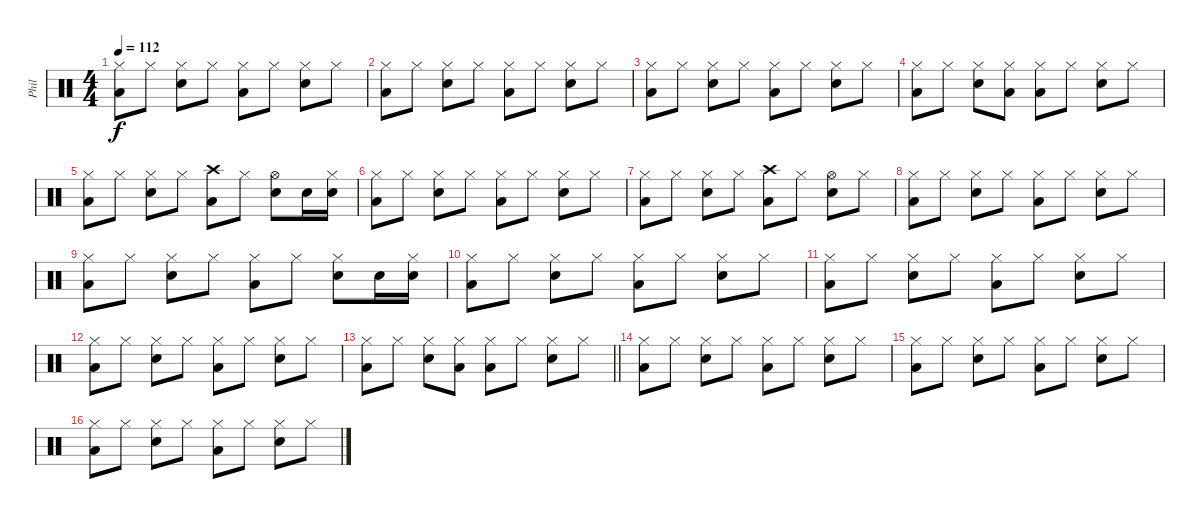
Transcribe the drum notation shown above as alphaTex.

\track ("Phil" "Phil") {instrument percussion}
\staff {score}
\articulation defaults
\ts (4 4)
\tempo 112
\clef neutral
\ks c
("Hi-Hat (closed)" "Low Floor Tom (hit)").8{dy f} "Hi-Hat (closed)".8 ("Hi-Hat (closed)" "Snare (hit) 2").8 "Hi-Hat (closed)".8 ("Hi-Hat (closed)" "Low Floor Tom (hit)").8 "Hi-Hat (closed)".8 ("Hi-Hat (closed)" "Snare (hit) 2").8 "Hi-Hat (closed)".8 |
("Hi-Hat (closed)" "Low Floor Tom (hit)").8 "Hi-Hat (closed)".8 ("Hi-Hat (closed)" "Snare (hit) 2").8 "Hi-Hat (closed)".8 ("Hi-Hat (closed)" "Low Floor Tom (hit)").8 "Hi-Hat (closed)".8 ("Hi-Hat (closed)" "Snare (hit) 2").8 "Hi-Hat (closed)".8 |
("Hi-Hat (closed)" "Low Floor Tom (hit)").8 "Hi-Hat (closed)".8 ("Hi-Hat (closed)" "Snare (hit) 2").8 "Hi-Hat (closed)".8 ("Hi-Hat (closed)" "Low Floor Tom (hit)").8 "Hi-Hat (closed)".8 ("Hi-Hat (closed)" "Snare (hit) 2").8 "Hi-Hat (closed)".8 |
("Hi-Hat (closed)" "Low Floor Tom (hit)").8 "Hi-Hat (closed)".8 ("Hi-Hat (closed)" "Snare (hit) 2").8 ("Hi-Hat (closed)" "Low Floor Tom (hit)").8 ("Hi-Hat (closed)" "Low Floor Tom (hit)").8 "Hi-Hat (closed)".8 ("Hi-Hat (closed)" "Snare (hit) 2").8 "Hi-Hat (closed)".8 |
("Hi-Hat (closed)" "Low Floor Tom (hit)").8 "Hi-Hat (closed)".8 ("Hi-Hat (closed)" "Snare (hit) 2").8 "Hi-Hat (closed)".8 ("Crash high (hit)" "Low Floor Tom (hit)").8 "Hi-Hat (closed)".8 ("Hi-Hat (open)" "Snare (hit) 2").8 "Snare (hit) 2".16 ("Hi-Hat (closed)" "Snare (hit) 2").16 |
("Hi-Hat (closed)" "Low Floor Tom (hit)").8 "Hi-Hat (closed)".8 ("Hi-Hat (closed)" "Snare (hit) 2").8 "Hi-Hat (closed)".8 ("Hi-Hat (closed)" "Low Floor Tom (hit)").8 "Hi-Hat (closed)".8 ("Hi-Hat (closed)" "Snare (hit) 2").8 "Hi-Hat (closed)".8 |
("Hi-Hat (closed)" "Low Floor Tom (hit)").8 "Hi-Hat (closed)".8 ("Hi-Hat (closed)" "Snare (hit) 2").8 "Hi-Hat (closed)".8 ("Crash high (hit)" "Low Floor Tom (hit)").8 "Hi-Hat (closed)".8 ("Hi-Hat (open)" "Snare (hit) 2").8 "Hi-Hat (closed)".8 |
("Hi-Hat (closed)" "Low Floor Tom (hit)").8 "Hi-Hat (closed)".8 ("Hi-Hat (closed)" "Snare (hit) 2").8 "Hi-Hat (closed)".8 ("Hi-Hat (closed)" "Low Floor Tom (hit)").8 "Hi-Hat (closed)".8 ("Hi-Hat (closed)" "Snare (hit) 2").8 "Hi-Hat (closed)".8 |
("Hi-Hat (closed)" "Low Floor Tom (hit)").8 "Hi-Hat (closed)".8 ("Hi-Hat (closed)" "Snare (hit) 2").8 "Hi-Hat (closed)".8 ("Hi-Hat (closed)" "Low Floor Tom (hit)").8 "Hi-Hat (closed)".8 ("Hi-Hat (closed)" "Snare (hit) 2").8 "Snare (hit) 2".16 ("Hi-Hat (closed)" "Snare (hit) 2").16 |
("Hi-Hat (closed)" "Low Floor Tom (hit)").8 "Hi-Hat (closed)".8 ("Hi-Hat (closed)" "Snare (hit) 2").8 "Hi-Hat (closed)".8 ("Hi-Hat (closed)" "Low Floor Tom (hit)").8 "Hi-Hat (closed)".8 ("Hi-Hat (closed)" "Snare (hit) 2").8 "Hi-Hat (closed)".8 |
("Hi-Hat (closed)" "Low Floor Tom (hit)").8 "Hi-Hat (closed)".8 ("Hi-Hat (closed)" "Snare (hit) 2").8 "Hi-Hat (closed)".8 ("Hi-Hat (closed)" "Low Floor Tom (hit)").8 "Hi-Hat (closed)".8 ("Hi-Hat (closed)" "Snare (hit) 2").8 "Hi-Hat (closed)".8 |
("Hi-Hat (closed)" "Low Floor Tom (hit)").8 "Hi-Hat (closed)".8 ("Hi-Hat (closed)" "Snare (hit) 2").8 "Hi-Hat (closed)".8 ("Hi-Hat (closed)" "Low Floor Tom (hit)").8 "Hi-Hat (closed)".8 ("Hi-Hat (closed)" "Snare (hit) 2").8 "Hi-Hat (closed)".8 |
\barLineRight lightlight
("Hi-Hat (closed)" "Low Floor Tom (hit)").8 "Hi-Hat (closed)".8 ("Hi-Hat (closed)" "Snare (hit) 2").8 ("Hi-Hat (closed)" "Low Floor Tom (hit)").8 ("Hi-Hat (closed)" "Low Floor Tom (hit)").8 "Hi-Hat (closed)".8 ("Hi-Hat (closed)" "Snare (hit) 2").8 "Hi-Hat (closed)".8 |
("Hi-Hat (closed)" "Low Floor Tom (hit)").8 "Hi-Hat (closed)".8 ("Hi-Hat (closed)" "Snare (hit) 2").8 "Hi-Hat (closed)".8 ("Hi-Hat (closed)" "Low Floor Tom (hit)").8 "Hi-Hat (closed)".8 ("Hi-Hat (closed)" "Snare (hit) 2").8 "Hi-Hat (closed)".8 |
("Hi-Hat (closed)" "Low Floor Tom (hit)").8 "Hi-Hat (closed)".8 ("Hi-Hat (closed)" "Snare (hit) 2").8 "Hi-Hat (closed)".8 ("Hi-Hat (closed)" "Low Floor Tom (hit)").8 "Hi-Hat (closed)".8 ("Hi-Hat (closed)" "Snare (hit) 2").8 "Hi-Hat (closed)".8 |
("Hi-Hat (closed)" "Low Floor Tom (hit)").8 "Hi-Hat (closed)".8 ("Hi-Hat (closed)" "Snare (hit) 2").8 "Hi-Hat (closed)".8 ("Hi-Hat (closed)" "Low Floor Tom (hit)").8 "Hi-Hat (closed)".8 ("Hi-Hat (closed)" "Snare (hit) 2").8 "Hi-Hat (closed)".8
